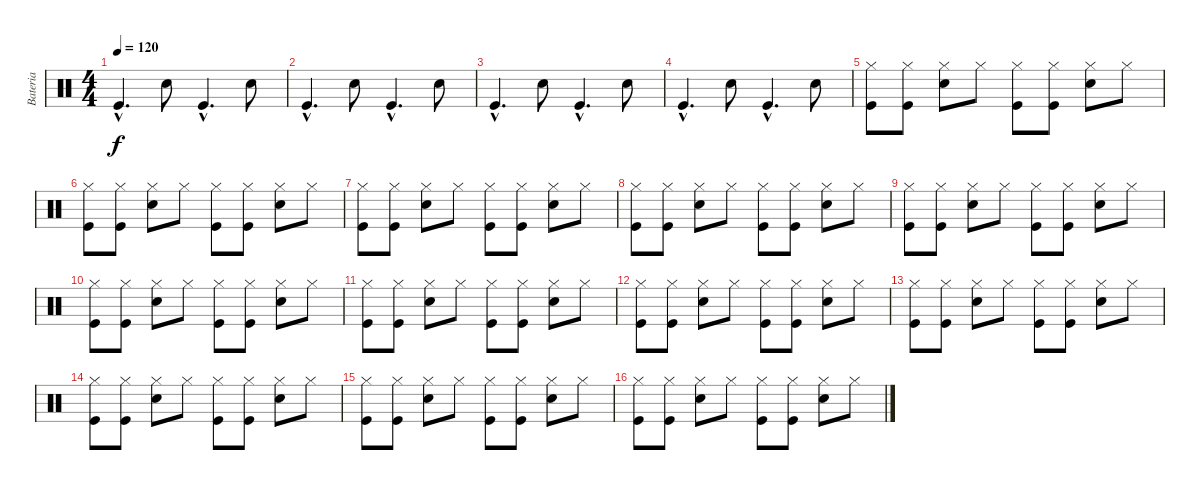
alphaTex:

\track ("Bateria" "Bateria") {instrument percussion}
\staff {score}
\articulation defaults
\ts (4 4)
\tempo 120
\clef neutral
\ks c "Kick (hit)"{hac}.4{d dy f} "Electric Snare (hit)".8 "Kick (hit)"{hac}.4{d} "Electric Snare (hit)".8
|
"Kick (hit)"{hac}.4{d} "Electric Snare (hit)".8 "Kick (hit)"{hac}.4{d} "Electric Snare (hit)".8 |
"Kick (hit)"{hac}.4{d} "Electric Snare (hit)".8 "Kick (hit)"{hac}.4{d} "Electric Snare (hit)".8 |
"Kick (hit)"{hac}.4{d} "Electric Snare (hit)".8 "Kick (hit)"{hac}.4{d} "Electric Snare (hit)".8 |
("Hi-Hat (closed)" "Kick (hit)").8 ("Hi-Hat (closed)" "Kick (hit)").8 ("Hi-Hat (closed)" "Snare (hit) 2").8 "Hi-Hat (closed)".8 ("Hi-Hat (closed)" "Kick (hit)").8 ("Hi-Hat (closed)" "Kick (hit)").8 ("Hi-Hat (closed)" "Snare (hit) 2").8 "Hi-Hat (closed)".8 |
("Hi-Hat (closed)" "Kick (hit)").8 ("Hi-Hat (closed)" "Kick (hit)").8 ("Hi-Hat (closed)" "Snare (hit) 2").8 "Hi-Hat (closed)".8 ("Hi-Hat (closed)" "Kick (hit)").8 ("Hi-Hat (closed)" "Kick (hit)").8 ("Hi-Hat (closed)" "Snare (hit) 2").8 "Hi-Hat (closed)".8 |
("Hi-Hat (closed)" "Kick (hit)").8 ("Hi-Hat (closed)" "Kick (hit)").8 ("Hi-Hat (closed)" "Snare (hit) 2").8 "Hi-Hat (closed)".8 ("Hi-Hat (closed)" "Kick (hit)").8 ("Hi-Hat (closed)" "Kick (hit)").8 ("Hi-Hat (closed)" "Snare (hit) 2").8 "Hi-Hat (closed)".8 |
("Hi-Hat (closed)" "Kick (hit)").8 ("Hi-Hat (closed)" "Kick (hit)").8 ("Hi-Hat (closed)" "Snare (hit) 2").8 "Hi-Hat (closed)".8 ("Hi-Hat (closed)" "Kick (hit)").8 ("Hi-Hat (closed)" "Kick (hit)").8 ("Hi-Hat (closed)" "Snare (hit) 2").8 "Hi-Hat (closed)".8 |
("Hi-Hat (closed)" "Kick (hit)").8 ("Hi-Hat (closed)" "Kick (hit)").8 ("Hi-Hat (closed)" "Snare (hit) 2").8 "Hi-Hat (closed)".8 ("Hi-Hat (closed)" "Kick (hit)").8 ("Hi-Hat (closed)" "Kick (hit)").8 ("Hi-Hat (closed)" "Snare (hit) 2").8 "Hi-Hat (closed)".8 |
("Hi-Hat (closed)" "Kick (hit)").8 ("Hi-Hat (closed)" "Kick (hit)").8 ("Hi-Hat (closed)" "Snare (hit) 2").8 "Hi-Hat (closed)".8 ("Hi-Hat (closed)" "Kick (hit)").8 ("Hi-Hat (closed)" "Kick (hit)").8 ("Hi-Hat (closed)" "Snare (hit) 2").8 "Hi-Hat (closed)".8 |
("Hi-Hat (closed)" "Kick (hit)").8 ("Hi-Hat (closed)" "Kick (hit)").8 ("Hi-Hat (closed)" "Snare (hit) 2").8 "Hi-Hat (closed)".8 ("Hi-Hat (closed)" "Kick (hit)").8 ("Hi-Hat (closed)" "Kick (hit)").8 ("Hi-Hat (closed)" "Snare (hit) 2").8 "Hi-Hat (closed)".8 |
("Hi-Hat (closed)" "Kick (hit)").8 ("Hi-Hat (closed)" "Kick (hit)").8 ("Hi-Hat (closed)" "Snare (hit) 2").8 "Hi-Hat (closed)".8 ("Hi-Hat (closed)" "Kick (hit)").8 ("Hi-Hat (closed)" "Kick (hit)").8 ("Hi-Hat (closed)" "Snare (hit) 2").8 "Hi-Hat (closed)".8 |
("Hi-Hat (closed)" "Kick (hit)").8 ("Hi-Hat (closed)" "Kick (hit)").8 ("Hi-Hat (closed)" "Snare (hit) 2").8 "Hi-Hat (closed)".8 ("Hi-Hat (closed)" "Kick (hit)").8 ("Hi-Hat (closed)" "Kick (hit)").8 ("Hi-Hat (closed)" "Snare (hit) 2").8 "Hi-Hat (closed)".8 |
("Hi-Hat (closed)" "Kick (hit)").8 ("Hi-Hat (closed)" "Kick (hit)").8 ("Hi-Hat (closed)" "Snare (hit) 2").8 "Hi-Hat (closed)".8 ("Hi-Hat (closed)" "Kick (hit)").8 ("Hi-Hat (closed)" "Kick (hit)").8 ("Hi-Hat (closed)" "Snare (hit) 2").8 "Hi-Hat (closed)".8 |
("Hi-Hat (closed)" "Kick (hit)").8 ("Hi-Hat (closed)" "Kick (hit)").8 ("Hi-Hat (closed)" "Snare (hit) 2").8 "Hi-Hat (closed)".8 ("Hi-Hat (closed)" "Kick (hit)").8 ("Hi-Hat (closed)" "Kick (hit)").8 ("Hi-Hat (closed)" "Snare (hit) 2").8 "Hi-Hat (closed)".8 |
("Hi-Hat (closed)" "Kick (hit)").8 ("Hi-Hat (closed)" "Kick (hit)").8 ("Hi-Hat (closed)" "Snare (hit) 2").8 "Hi-Hat (closed)".8 ("Hi-Hat (closed)" "Kick (hit)").8 ("Hi-Hat (closed)" "Kick (hit)").8 ("Hi-Hat (closed)" "Snare (hit) 2").8 "Hi-Hat (closed)".8
